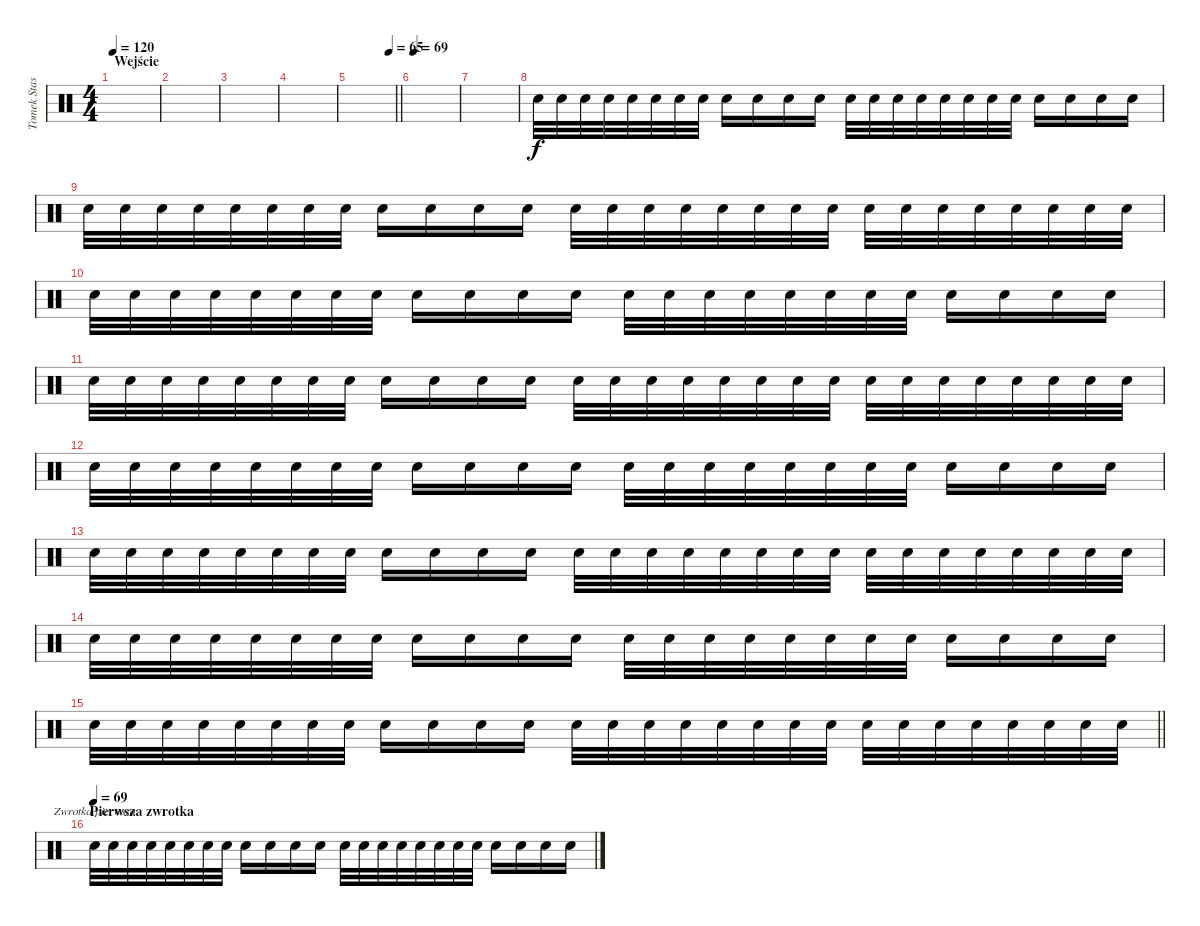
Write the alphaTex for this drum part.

\track ("Tomek Stasiak" "Tomek Stas") {instrument percussion}
\staff {score}
\articulation defaults
\chord ("Kliknij f5 :)")
\chord ("Zwrotka pierwsza")
\ts (4 4)
\section ("" "Wejście")
\tempo 120
\clef neutral
\ks c
|
|
|
|
\tempo (65 0.875)
\barLineRight lightlight
|
\tempo 69
|
|
"Snare (hit) 2".32{volume 3} "Snare (hit) 2".32{volume 3} "Snare (hit) 2".32 "Snare (hit) 2".32 "Snare (hit) 2".32 "Snare (hit) 2".32 "Snare (hit) 2".32 "Snare (hit) 2".32 "Snare (hit) 2".16 "Snare (hit) 2".16 "Snare (hit) 2".16 "Snare (hit) 2".16 "Snare (hit) 2".32{volume 4} "Snare (hit) 2".32{volume 3} "Snare (hit) 2".32 "Snare (hit) 2".32 "Snare (hit) 2".32 "Snare (hit) 2".32 "Snare (hit) 2".32 "Snare (hit) 2".32 "Snare (hit) 2".16 "Snare (hit) 2".16 "Snare (hit) 2".16 "Snare (hit) 2".16 |
"Snare (hit) 2".32{volume 5} "Snare (hit) 2".32{volume 3} "Snare (hit) 2".32 "Snare (hit) 2".32 "Snare (hit) 2".32 "Snare (hit) 2".32 "Snare (hit) 2".32 "Snare (hit) 2".32 "Snare (hit) 2".16 "Snare (hit) 2".16 "Snare (hit) 2".16 "Snare (hit) 2".16 "Snare (hit) 2".32{volume 6} "Snare (hit) 2".32{volume 4} "Snare (hit) 2".32 "Snare (hit) 2".32 "Snare (hit) 2".32 "Snare (hit) 2".32 "Snare (hit) 2".32 "Snare (hit) 2".32 "Snare (hit) 2".32{volume 7} "Snare (hit) 2".32{volume 5} "Snare (hit) 2".32 "Snare (hit) 2".32 "Snare (hit) 2".32 "Snare (hit) 2".32 "Snare (hit) 2".32 "Snare (hit) 2".32 |
"Snare (hit) 2".32{volume 8} "Snare (hit) 2".32{volume 6} "Snare (hit) 2".32 "Snare (hit) 2".32 "Snare (hit) 2".32 "Snare (hit) 2".32 "Snare (hit) 2".32 "Snare (hit) 2".32 "Snare (hit) 2".16 "Snare (hit) 2".16 "Snare (hit) 2".16 "Snare (hit) 2".16 "Snare (hit) 2".32{volume 9} "Snare (hit) 2".32{volume 7} "Snare (hit) 2".32 "Snare (hit) 2".32 "Snare (hit) 2".32 "Snare (hit) 2".32 "Snare (hit) 2".32 "Snare (hit) 2".32 "Snare (hit) 2".16 "Snare (hit) 2".16 "Snare (hit) 2".16 "Snare (hit) 2".16 |
"Snare (hit) 2".32{volume 10} "Snare (hit) 2".32{volume 7} "Snare (hit) 2".32 "Snare (hit) 2".32 "Snare (hit) 2".32 "Snare (hit) 2".32 "Snare (hit) 2".32 "Snare (hit) 2".32 "Snare (hit) 2".16 "Snare (hit) 2".16 "Snare (hit) 2".16 "Snare (hit) 2".16 "Snare (hit) 2".32{volume 10} "Snare (hit) 2".32{volume 7} "Snare (hit) 2".32 "Snare (hit) 2".32 "Snare (hit) 2".32 "Snare (hit) 2".32 "Snare (hit) 2".32 "Snare (hit) 2".32 "Snare (hit) 2".32{volume 10} "Snare (hit) 2".32{volume 7} "Snare (hit) 2".32 "Snare (hit) 2".32 "Snare (hit) 2".32 "Snare (hit) 2".32 "Snare (hit) 2".32 "Snare (hit) 2".32 |
"Snare (hit) 2".32{volume 10} "Snare (hit) 2".32{volume 7} "Snare (hit) 2".32 "Snare (hit) 2".32 "Snare (hit) 2".32 "Snare (hit) 2".32 "Snare (hit) 2".32 "Snare (hit) 2".32 "Snare (hit) 2".16 "Snare (hit) 2".16 "Snare (hit) 2".16 "Snare (hit) 2".16 "Snare (hit) 2".32{volume 10} "Snare (hit) 2".32{volume 7} "Snare (hit) 2".32 "Snare (hit) 2".32 "Snare (hit) 2".32 "Snare (hit) 2".32 "Snare (hit) 2".32 "Snare (hit) 2".32 "Snare (hit) 2".16 "Snare (hit) 2".16 "Snare (hit) 2".16 "Snare (hit) 2".16 |
"Snare (hit) 2".32{volume 10} "Snare (hit) 2".32{volume 7} "Snare (hit) 2".32 "Snare (hit) 2".32 "Snare (hit) 2".32 "Snare (hit) 2".32 "Snare (hit) 2".32 "Snare (hit) 2".32 "Snare (hit) 2".16 "Snare (hit) 2".16 "Snare (hit) 2".16 "Snare (hit) 2".16 "Snare (hit) 2".32{volume 10} "Snare (hit) 2".32{volume 7} "Snare (hit) 2".32 "Snare (hit) 2".32 "Snare (hit) 2".32 "Snare (hit) 2".32 "Snare (hit) 2".32 "Snare (hit) 2".32 "Snare (hit) 2".32{volume 10} "Snare (hit) 2".32{volume 7} "Snare (hit) 2".32 "Snare (hit) 2".32 "Snare (hit) 2".32 "Snare (hit) 2".32 "Snare (hit) 2".32 "Snare (hit) 2".32 |
"Snare (hit) 2".32{volume 10} "Snare (hit) 2".32{volume 7} "Snare (hit) 2".32 "Snare (hit) 2".32 "Snare (hit) 2".32 "Snare (hit) 2".32 "Snare (hit) 2".32 "Snare (hit) 2".32 "Snare (hit) 2".16 "Snare (hit) 2".16 "Snare (hit) 2".16 "Snare (hit) 2".16 "Snare (hit) 2".32{volume 10} "Snare (hit) 2".32{volume 7} "Snare (hit) 2".32 "Snare (hit) 2".32 "Snare (hit) 2".32 "Snare (hit) 2".32 "Snare (hit) 2".32 "Snare (hit) 2".32 "Snare (hit) 2".16 "Snare (hit) 2".16 "Snare (hit) 2".16 "Snare (hit) 2".16 |
\barLineRight lightlight "Snare (hit) 2".32{volume 10} "Snare (hit) 2".32{volume 7} "Snare (hit) 2".32 "Snare (hit) 2".32 "Snare (hit) 2".32 "Snare (hit) 2".32 "Snare (hit) 2".32 "Snare (hit) 2".32 "Snare (hit) 2".16 "Snare (hit) 2".16 "Snare (hit) 2".16 "Snare (hit) 2".16 "Snare (hit) 2".32{volume 10} "Snare (hit) 2".32{volume 7} "Snare (hit) 2".32 "Snare (hit) 2".32 "Snare (hit) 2".32 "Snare (hit) 2".32 "Snare (hit) 2".32 "Snare (hit) 2".32 "Snare (hit) 2".32{volume 10} "Snare (hit) 2".32{volume 7} "Snare (hit) 2".32 "Snare (hit) 2".32 "Snare (hit) 2".32 "Snare (hit) 2".32 "Snare (hit) 2".32 "Snare (hit) 2".32
|
\section ("" "Pierwsza zwrotka")
\tempo (69)
"Snare (hit) 2".32{ch "Zwrotka pierwsza" volume 10} "Snare (hit) 2".32{volume 7} "Snare (hit) 2".32 "Snare (hit) 2".32 "Snare (hit) 2".32 "Snare (hit) 2".32 "Snare (hit) 2".32 "Snare (hit) 2".32 "Snare (hit) 2".16 "Snare (hit) 2".16 "Snare (hit) 2".16 "Snare (hit) 2".16 "Snare (hit) 2".32{volume 10} "Snare (hit) 2".32{volume 7} "Snare (hit) 2".32 "Snare (hit) 2".32 "Snare (hit) 2".32 "Snare (hit) 2".32 "Snare (hit) 2".32 "Snare (hit) 2".32 "Snare (hit) 2".16 "Snare (hit) 2".16 "Snare (hit) 2".16 "Snare (hit) 2".16
